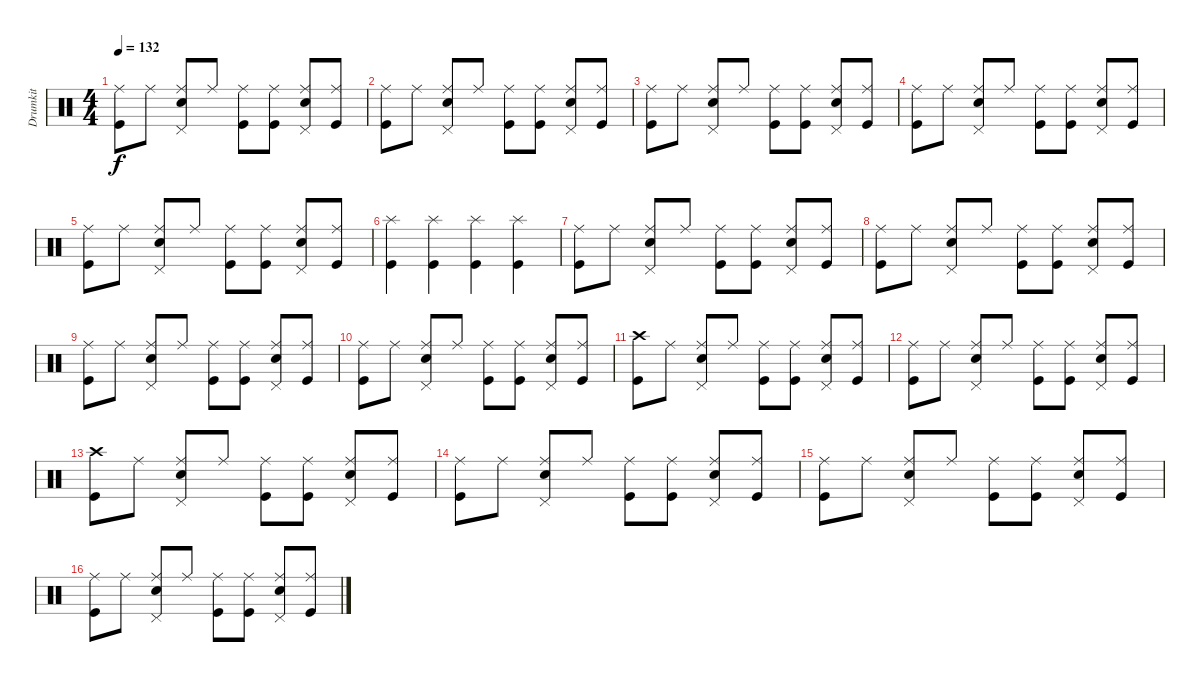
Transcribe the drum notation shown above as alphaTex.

\track ("Drumkit" "Drumkit") {instrument percussion}
\staff {score}
\articulation defaults
\ts (4 4)
\tempo 132
\clef neutral
\ks c
("Kick (hit)" "Ride (middle)").8{dy f} "Ride (middle)".8 ("Snare (hit) 2" "Pedal Hi-Hat (hit)" "Ride (middle)").8 "Ride (middle)".8 ("Kick (hit)" "Ride (middle)").8 ("Kick (hit)" "Ride (middle)").8 ("Snare (hit) 2" "Pedal Hi-Hat (hit)" "Ride (middle)").8 ("Kick (hit)" "Ride (middle)").8 |
("Kick (hit)" "Ride (middle)").8 "Ride (middle)".8 ("Snare (hit) 2" "Pedal Hi-Hat (hit)" "Ride (middle)").8 "Ride (middle)".8 ("Kick (hit)" "Ride (middle)").8 ("Kick (hit)" "Ride (middle)").8 ("Snare (hit) 2" "Pedal Hi-Hat (hit)" "Ride (middle)").8 ("Kick (hit)" "Ride (middle)").8 |
("Kick (hit)" "Ride (middle)").8 "Ride (middle)".8 ("Snare (hit) 2" "Pedal Hi-Hat (hit)" "Ride (middle)").8 "Ride (middle)".8 ("Kick (hit)" "Ride (middle)").8 ("Kick (hit)" "Ride (middle)").8 ("Snare (hit) 2" "Pedal Hi-Hat (hit)" "Ride (middle)").8 ("Kick (hit)" "Ride (middle)").8 |
("Kick (hit)" "Ride (middle)").8 "Ride (middle)".8 ("Snare (hit) 2" "Pedal Hi-Hat (hit)" "Ride (middle)").8 "Ride (middle)".8 ("Kick (hit)" "Ride (middle)").8 ("Kick (hit)" "Ride (middle)").8 ("Snare (hit) 2" "Pedal Hi-Hat (hit)" "Ride (middle)").8 ("Kick (hit)" "Ride (middle)").8 |
("Kick (hit)" "Ride (middle)").8 "Ride (middle)".8 ("Snare (hit) 2" "Pedal Hi-Hat (hit)" "Ride (middle)").8 "Ride (middle)".8 ("Kick (hit)" "Ride (middle)").8 ("Kick (hit)" "Ride (middle)").8 ("Snare (hit) 2" "Pedal Hi-Hat (hit)" "Ride (middle)").8 ("Kick (hit)" "Ride (middle)").8 |
("Kick (hit)" "Splash (hit)").4 ("Kick (hit)" "Splash (hit)").4 ("Kick (hit)" "Splash (hit)").4 ("Kick (hit)" "Splash (hit)").4 |
("Kick (hit)" "Ride (middle)").8 "Ride (middle)".8 ("Snare (hit) 2" "Pedal Hi-Hat (hit)" "Ride (middle)").8 "Ride (middle)".8 ("Kick (hit)" "Ride (middle)").8 ("Kick (hit)" "Ride (middle)").8 ("Snare (hit) 2" "Pedal Hi-Hat (hit)" "Ride (middle)").8 ("Kick (hit)" "Ride (middle)").8 |
("Kick (hit)" "Ride (middle)").8 "Ride (middle)".8 ("Snare (hit) 2" "Pedal Hi-Hat (hit)" "Ride (middle)").8 "Ride (middle)".8 ("Kick (hit)" "Ride (middle)").8 ("Kick (hit)" "Ride (middle)").8 ("Snare (hit) 2" "Pedal Hi-Hat (hit)" "Ride (middle)").8 ("Kick (hit)" "Ride (middle)").8 |
("Kick (hit)" "Ride (middle)").8 "Ride (middle)".8 ("Snare (hit) 2" "Pedal Hi-Hat (hit)" "Ride (middle)").8 "Ride (middle)".8 ("Kick (hit)" "Ride (middle)").8 ("Kick (hit)" "Ride (middle)").8 ("Snare (hit) 2" "Pedal Hi-Hat (hit)" "Ride (middle)").8 ("Kick (hit)" "Ride (middle)").8 |
("Kick (hit)" "Ride (middle)").8 "Ride (middle)".8 ("Snare (hit) 2" "Pedal Hi-Hat (hit)" "Ride (middle)").8 "Ride (middle)".8 ("Kick (hit)" "Ride (middle)").8 ("Kick (hit)" "Ride (middle)").8 ("Snare (hit) 2" "Pedal Hi-Hat (hit)" "Ride (middle)").8 ("Kick (hit)" "Ride (middle)").8 |
("Kick (hit)" "Crash high (hit)").8 "Ride (middle)".8 ("Snare (hit) 2" "Pedal Hi-Hat (hit)" "Ride (middle)").8 "Ride (middle)".8 ("Kick (hit)" "Ride (middle)").8 ("Kick (hit)" "Ride (middle)").8 ("Snare (hit) 2" "Pedal Hi-Hat (hit)" "Ride (middle)").8 ("Kick (hit)" "Ride (middle)").8 |
("Kick (hit)" "Ride (middle)").8 "Ride (middle)".8 ("Snare (hit) 2" "Pedal Hi-Hat (hit)" "Ride (middle)").8 "Ride (middle)".8 ("Kick (hit)" "Ride (middle)").8 ("Kick (hit)" "Ride (middle)").8 ("Snare (hit) 2" "Pedal Hi-Hat (hit)" "Ride (middle)").8 ("Kick (hit)" "Ride (middle)").8 |
("Kick (hit)" "Crash high (hit)").8 "Ride (middle)".8 ("Snare (hit) 2" "Pedal Hi-Hat (hit)" "Ride (middle)").8 "Ride (middle)".8 ("Kick (hit)" "Ride (middle)").8 ("Kick (hit)" "Ride (middle)").8 ("Snare (hit) 2" "Pedal Hi-Hat (hit)" "Ride (middle)").8 ("Kick (hit)" "Ride (middle)").8 |
("Kick (hit)" "Ride (middle)").8 "Ride (middle)".8 ("Snare (hit) 2" "Pedal Hi-Hat (hit)" "Ride (middle)").8 "Ride (middle)".8 ("Kick (hit)" "Ride (middle)").8 ("Kick (hit)" "Ride (middle)").8 ("Snare (hit) 2" "Pedal Hi-Hat (hit)" "Ride (middle)").8 ("Kick (hit)" "Ride (middle)").8 |
("Kick (hit)" "Ride (middle)").8 "Ride (middle)".8 ("Snare (hit) 2" "Pedal Hi-Hat (hit)" "Ride (middle)").8 "Ride (middle)".8 ("Kick (hit)" "Ride (middle)").8 ("Kick (hit)" "Ride (middle)").8 ("Snare (hit) 2" "Pedal Hi-Hat (hit)" "Ride (middle)").8 ("Kick (hit)" "Ride (middle)").8 |
("Kick (hit)" "Ride (middle)").8 "Ride (middle)".8 ("Snare (hit) 2" "Pedal Hi-Hat (hit)" "Ride (middle)").8 "Ride (middle)".8 ("Kick (hit)" "Ride (middle)").8 ("Kick (hit)" "Ride (middle)").8 ("Snare (hit) 2" "Pedal Hi-Hat (hit)" "Ride (middle)").8 ("Kick (hit)" "Ride (middle)").8
